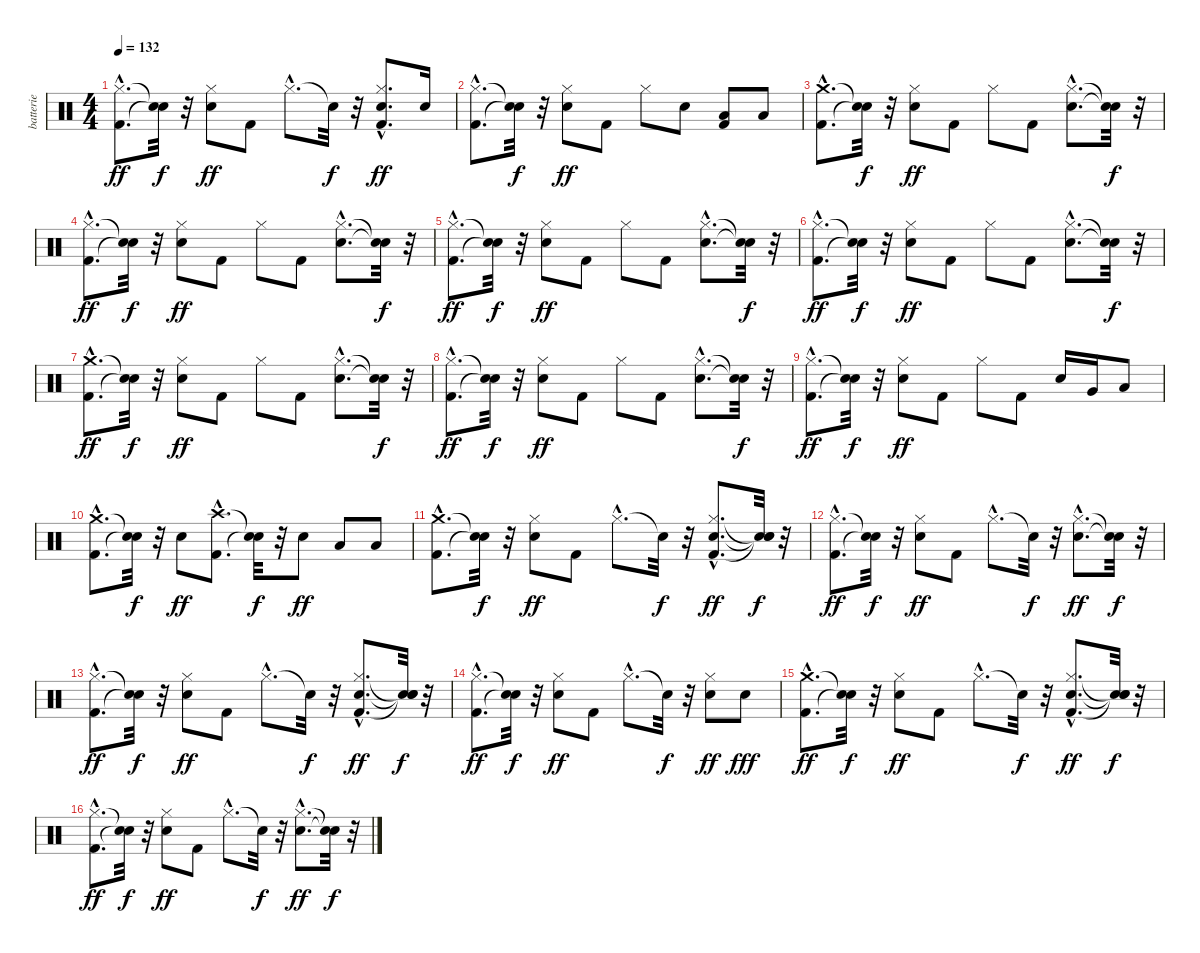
\track ("batterie" "batterie") {instrument percussion}
\staff {score}
\articulation defaults
\ts (4 4)
\tempo 132
\clef neutral
\ks c
("Kick (hit) 2"{hac} "Hi-Hat (closed)"{hac}).8{d dy ff} ("Snare (hit)"{t} "Snare (hit)"{t}).32{dy f} r.32 ("Electric Snare (hit)" "Hi-Hat (closed)").8{dy ff} "Kick (hit) 2".8 "Hi-Hat (closed)"{hac}.8{d} "Snare (hit)"{t}.32{dy f} r.32 ("Kick (hit) 2"{hac} "Electric Snare (hit)"{hac} "Hi-Hat (closed)"{hac}).8{d dy ff} "Electric Snare (hit)".16 |
("Kick (hit) 2"{hac} "Hi-Hat (closed)"{hac}).8{d} ("Snare (hit)"{t} "Snare (hit)"{t}).32{dy f} r.32 ("Electric Snare (hit)" "Hi-Hat (closed)").8{dy ff} "Kick (hit) 2".8 "Hi-Hat (closed)".8 "Electric Snare (hit)".8 ("Kick (hit) 2" "Low Tom (hit)").8 "Low Floor Tom (hit)".8 |
("Kick (hit) 2"{hac} "Crash medium (hit)"{hac}).8{d} ("Snare (hit)"{t} "Snare (hit)"{t}).32{dy f} r.32 ("Electric Snare (hit)" "Hi-Hat (closed)").8{dy ff} "Kick (hit) 2".8 "Hi-Hat (closed)".8 "Kick (hit) 2".8 ("Electric Snare (hit)"{hac} "Hi-Hat (closed)"{hac}).8{d} ("Snare (hit)"{t} "Snare (hit)"{t}).32{dy f} r.32 |
("Kick (hit) 2"{hac} "Hi-Hat (closed)"{hac}).8{d dy ff} ("Snare (hit)"{t} "Snare (hit)"{t}).32{dy f} r.32 ("Electric Snare (hit)" "Hi-Hat (closed)").8{dy ff} "Kick (hit) 2".8 "Hi-Hat (closed)".8 "Kick (hit) 2".8 ("Electric Snare (hit)"{hac} "Hi-Hat (closed)"{hac}).8{d} ("Snare (hit)"{t} "Snare (hit)"{t}).32{dy f} r.32 |
("Kick (hit) 2"{hac} "Hi-Hat (closed)"{hac}).8{d dy ff} ("Snare (hit)"{t} "Snare (hit)"{t}).32{dy f} r.32 ("Electric Snare (hit)" "Hi-Hat (closed)").8{dy ff} "Kick (hit) 2".8 "Hi-Hat (closed)".8 "Kick (hit) 2".8 ("Electric Snare (hit)"{hac} "Hi-Hat (closed)"{hac}).8{d} ("Snare (hit)"{t} "Snare (hit)"{t}).32{dy f} r.32 |
("Kick (hit) 2"{hac} "Hi-Hat (closed)"{hac}).8{d dy ff} ("Snare (hit)"{t} "Snare (hit)"{t}).32{dy f} r.32 ("Electric Snare (hit)" "Hi-Hat (closed)").8{dy ff} "Kick (hit) 2".8 "Hi-Hat (closed)".8 "Kick (hit) 2".8 ("Electric Snare (hit)"{hac} "Hi-Hat (closed)"{hac}).8{d} ("Snare (hit)"{t} "Snare (hit)"{t}).32{dy f} r.32 |
("Kick (hit) 2"{hac} "Crash medium (hit)"{hac}).8{d dy ff} ("Snare (hit)"{t} "Snare (hit)"{t}).32{dy f} r.32 ("Electric Snare (hit)" "Hi-Hat (closed)").8{dy ff} "Kick (hit) 2".8 "Hi-Hat (closed)".8 "Kick (hit) 2".8 ("Electric Snare (hit)"{hac} "Hi-Hat (closed)"{hac}).8{d} ("Snare (hit)"{t} "Snare (hit)"{t}).32{dy f} r.32 |
("Kick (hit) 2"{hac} "Hi-Hat (closed)"{hac}).8{d dy ff} ("Snare (hit)"{t} "Snare (hit)"{t}).32{dy f} r.32 ("Electric Snare (hit)" "Hi-Hat (closed)").8{dy ff} "Kick (hit) 2".8 "Hi-Hat (closed)".8 "Kick (hit) 2".8 ("Electric Snare (hit)"{hac} "Hi-Hat (closed)"{hac}).8{d} ("Snare (hit)"{t} "Snare (hit)"{t}).32{dy f} r.32 |
("Kick (hit) 2"{hac} "Hi-Hat (closed)"{hac}).8{d dy ff} ("Snare (hit)"{t} "Snare (hit)"{t}).32{dy f} r.32 ("Electric Snare (hit)" "Hi-Hat (closed)").8{dy ff} "Kick (hit) 2".8 "Hi-Hat (closed)".8 "Kick (hit) 2".8 "Electric Snare (hit)".16 "Very Low Tom (hit)".16 "Low Floor Tom (hit)".8 |
("Kick (hit) 2"{hac} "Crash medium (hit)"{hac}).8{d} ("Snare (hit)"{t} "Snare (hit)"{t}).32{dy f} r.32 "Electric Snare (hit)".8{dy ff} ("Kick (hit) 2"{hac} "Crash high (hit)"{hac}).8{d} ("Snare (hit)"{t} "Snare (hit)"{t}).32{dy f} r.32 "Electric Snare (hit)".8{dy ff} "Low Tom (hit)".8 "Low Floor Tom (hit)".8 |
("Kick (hit) 2"{hac} "Crash medium (hit)"{hac}).8{d} ("Snare (hit)"{t} "Snare (hit)"{t}).32{dy f} r.32 ("Electric Snare (hit)" "Hi-Hat (closed)").8{dy ff} "Kick (hit) 2".8 "Hi-Hat (closed)"{hac}.8{d} "Snare (hit)"{t}.32{dy f} r.32 ("Kick (hit) 2"{hac} "Electric Snare (hit)"{hac} "Hi-Hat (closed)"{hac}).8{d dy ff} ("Snare (hit)"{t} "Snare (hit)"{t} "Snare (hit)"{t}).32{dy f} r.32 |
("Kick (hit) 2"{hac} "Hi-Hat (closed)"{hac}).8{d dy ff} ("Snare (hit)"{t} "Snare (hit)"{t}).32{dy f} r.32 ("Electric Snare (hit)" "Hi-Hat (closed)").8{dy ff} "Kick (hit) 2".8 "Hi-Hat (closed)"{hac}.8{d} "Snare (hit)"{t}.32{dy f} r.32 ("Electric Snare (hit)"{hac} "Hi-Hat (closed)"{hac}).8{d dy ff} ("Snare (hit)"{t} "Snare (hit)"{t}).32{dy f} r.32 |
("Kick (hit) 2"{hac} "Hi-Hat (closed)"{hac}).8{d dy ff} ("Snare (hit)"{t} "Snare (hit)"{t}).32{dy f} r.32 ("Electric Snare (hit)" "Hi-Hat (closed)").8{dy ff} "Kick (hit) 2".8 "Hi-Hat (closed)"{hac}.8{d} "Snare (hit)"{t}.32{dy f} r.32 ("Kick (hit) 2"{hac} "Electric Snare (hit)"{hac} "Hi-Hat (closed)"{hac}).8{d dy ff} ("Snare (hit)"{t} "Snare (hit)"{t} "Snare (hit)"{t}).32{dy f} r.32 |
("Kick (hit) 2"{hac} "Hi-Hat (closed)"{hac}).8{d dy ff} ("Snare (hit)"{t} "Snare (hit)"{t}).32{dy f} r.32 ("Electric Snare (hit)" "Hi-Hat (closed)").8{dy ff} "Kick (hit) 2".8 "Hi-Hat (closed)"{hac}.8{d} "Snare (hit)"{t}.32{dy f} r.32 ("Electric Snare (hit)" "Hi-Hat (closed)").8{dy ff} "Electric Snare (hit)".8{dy fff} |
("Kick (hit) 2"{hac} "Crash medium (hit)"{hac}).8{d dy ff} ("Snare (hit)"{t} "Snare (hit)"{t}).32{dy f} r.32 ("Electric Snare (hit)" "Hi-Hat (closed)").8{dy ff} "Kick (hit) 2".8 "Hi-Hat (closed)"{hac}.8{d} "Snare (hit)"{t}.32{dy f} r.32 ("Kick (hit) 2"{hac} "Electric Snare (hit)"{hac} "Hi-Hat (closed)"{hac}).8{d dy ff} ("Snare (hit)"{t} "Snare (hit)"{t} "Snare (hit)"{t}).32{dy f} r.32 |
("Kick (hit) 2"{hac} "Hi-Hat (closed)"{hac}).8{d dy ff} ("Snare (hit)"{t} "Snare (hit)"{t}).32{dy f} r.32 ("Electric Snare (hit)" "Hi-Hat (closed)").8{dy ff} "Kick (hit) 2".8 "Hi-Hat (closed)"{hac}.8{d} "Snare (hit)"{t}.32{dy f} r.32 ("Electric Snare (hit)"{hac} "Hi-Hat (closed)"{hac}).8{d dy ff} ("Snare (hit)"{t} "Snare (hit)"{t}).32{dy f} r.32
